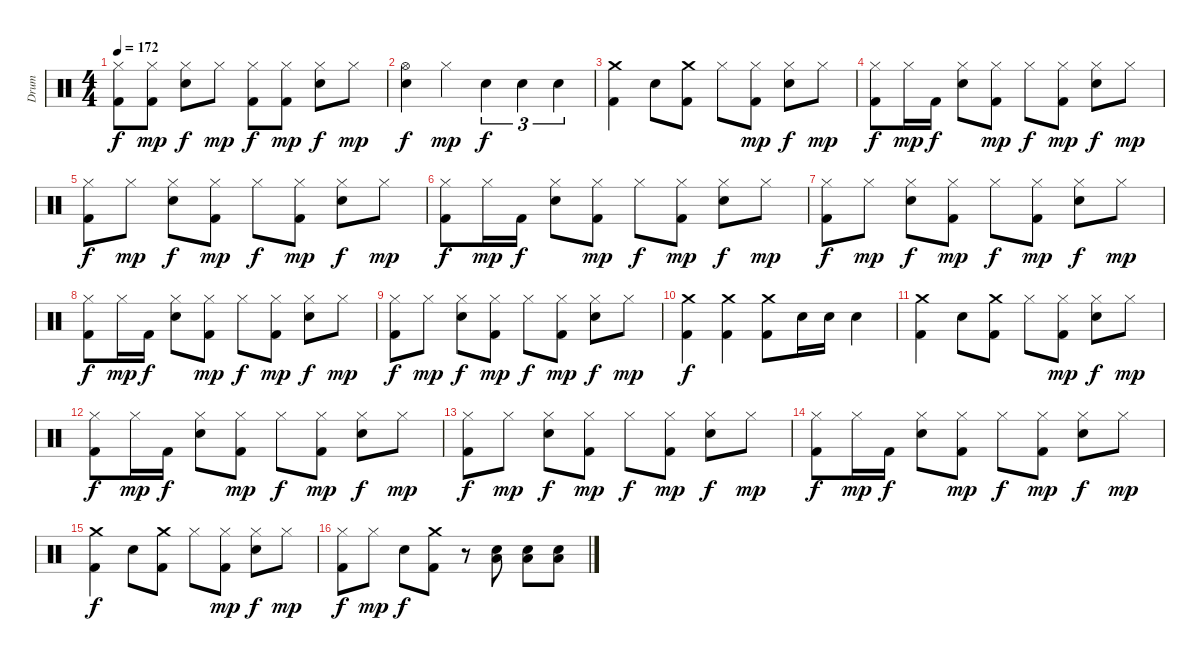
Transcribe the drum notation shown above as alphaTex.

\track ("Drum" "Drum") {instrument percussion}
\staff {score}
\articulation defaults
\ts (4 4)
\tempo 172
\clef neutral
\ks c
("Hi-Hat (closed)" "Kick (hit) 2").8{dy f} ("Hi-Hat (closed)" "Kick (hit) 2").8{dy mp} ("Hi-Hat (closed)" "Electric Snare (hit)").8{dy f} "Hi-Hat (closed)".8{dy mp} ("Hi-Hat (closed)" "Kick (hit) 2").8{dy f} ("Hi-Hat (closed)" "Kick (hit) 2").8{dy mp} ("Hi-Hat (closed)" "Electric Snare (hit)").8{dy f} "Hi-Hat (closed)".8{dy mp} |
("Hi-Hat (open)" "Electric Snare (hit)").4{dy f} "Hi-Hat (closed)".4{dy mp} "Electric Snare (hit)".4{tu (3 2) dy f} "Electric Snare (hit)".4{tu (3 2)} "Electric Snare (hit)".4{tu (3 2)} |
("Crash medium (hit)" "Kick (hit) 2").4 "Electric Snare (hit)".8 ("Crash medium (hit)" "Kick (hit) 2").8 "Hi-Hat (closed)".8 ("Hi-Hat (closed)" "Kick (hit) 2").8{dy mp} ("Hi-Hat (closed)" "Electric Snare (hit)").8{dy f} "Hi-Hat (closed)".8{dy mp} |
("Hi-Hat (closed)" "Kick (hit) 2").8{dy f} "Hi-Hat (closed)".16{dy mp} "Kick (hit) 2".16{dy f} ("Hi-Hat (closed)" "Electric Snare (hit)").8 ("Hi-Hat (closed)" "Kick (hit) 2").8{dy mp} "Hi-Hat (closed)".8{dy f} ("Hi-Hat (closed)" "Kick (hit) 2").8{dy mp} ("Hi-Hat (closed)" "Electric Snare (hit)").8{dy f} "Hi-Hat (closed)".8{dy mp} |
("Hi-Hat (closed)" "Kick (hit) 2").8{dy f} "Hi-Hat (closed)".8{dy mp} ("Hi-Hat (closed)" "Electric Snare (hit)").8{dy f} ("Hi-Hat (closed)" "Kick (hit) 2").8{dy mp} "Hi-Hat (closed)".8{dy f} ("Hi-Hat (closed)" "Kick (hit) 2").8{dy mp} ("Hi-Hat (closed)" "Electric Snare (hit)").8{dy f} "Hi-Hat (closed)".8{dy mp} |
("Hi-Hat (closed)" "Kick (hit) 2").8{dy f} "Hi-Hat (closed)".16{dy mp} "Kick (hit) 2".16{dy f} ("Hi-Hat (closed)" "Electric Snare (hit)").8 ("Hi-Hat (closed)" "Kick (hit) 2").8{dy mp} "Hi-Hat (closed)".8{dy f} ("Hi-Hat (closed)" "Kick (hit) 2").8{dy mp} ("Hi-Hat (closed)" "Electric Snare (hit)").8{dy f} "Hi-Hat (closed)".8{dy mp} |
("Hi-Hat (closed)" "Kick (hit) 2").8{dy f} "Hi-Hat (closed)".8{dy mp} ("Hi-Hat (closed)" "Electric Snare (hit)").8{dy f} ("Hi-Hat (closed)" "Kick (hit) 2").8{dy mp} "Hi-Hat (closed)".8{dy f} ("Hi-Hat (closed)" "Kick (hit) 2").8{dy mp} ("Hi-Hat (closed)" "Electric Snare (hit)").8{dy f} "Hi-Hat (closed)".8{dy mp} |
("Hi-Hat (closed)" "Kick (hit) 2").8{dy f} "Hi-Hat (closed)".16{dy mp} "Kick (hit) 2".16{dy f} ("Hi-Hat (closed)" "Electric Snare (hit)").8 ("Hi-Hat (closed)" "Kick (hit) 2").8{dy mp} "Hi-Hat (closed)".8{dy f} ("Hi-Hat (closed)" "Kick (hit) 2").8{dy mp} ("Hi-Hat (closed)" "Electric Snare (hit)").8{dy f} "Hi-Hat (closed)".8{dy mp} |
("Hi-Hat (closed)" "Kick (hit) 2").8{dy f} "Hi-Hat (closed)".8{dy mp} ("Hi-Hat (closed)" "Electric Snare (hit)").8{dy f} ("Hi-Hat (closed)" "Kick (hit) 2").8{dy mp} "Hi-Hat (closed)".8{dy f} ("Hi-Hat (closed)" "Kick (hit) 2").8{dy mp} ("Hi-Hat (closed)" "Electric Snare (hit)").8{dy f} "Hi-Hat (closed)".8{dy mp} |
("Crash medium (hit)" "Kick (hit) 2").4{dy f} ("Crash medium (hit)" "Kick (hit) 2").4 ("Crash medium (hit)" "Kick (hit) 2").8 "Electric Snare (hit)".16 "Electric Snare (hit)".16 "Electric Snare (hit)".4 |
("Crash medium (hit)" "Kick (hit) 2").4 "Electric Snare (hit)".8 ("Crash medium (hit)" "Kick (hit) 2").8 "Hi-Hat (closed)".8 ("Hi-Hat (closed)" "Kick (hit) 2").8{dy mp} ("Hi-Hat (closed)" "Electric Snare (hit)").8{dy f} "Hi-Hat (closed)".8{dy mp} |
("Hi-Hat (closed)" "Kick (hit) 2").8{dy f} "Hi-Hat (closed)".16{dy mp} "Kick (hit) 2".16{dy f} ("Hi-Hat (closed)" "Electric Snare (hit)").8 ("Hi-Hat (closed)" "Kick (hit) 2").8{dy mp} "Hi-Hat (closed)".8{dy f} ("Hi-Hat (closed)" "Kick (hit) 2").8{dy mp} ("Hi-Hat (closed)" "Electric Snare (hit)").8{dy f} "Hi-Hat (closed)".8{dy mp} |
("Hi-Hat (closed)" "Kick (hit) 2").8{dy f} "Hi-Hat (closed)".8{dy mp} ("Hi-Hat (closed)" "Electric Snare (hit)").8{dy f} ("Hi-Hat (closed)" "Kick (hit) 2").8{dy mp} "Hi-Hat (closed)".8{dy f} ("Hi-Hat (closed)" "Kick (hit) 2").8{dy mp} ("Hi-Hat (closed)" "Electric Snare (hit)").8{dy f} "Hi-Hat (closed)".8{dy mp} |
("Hi-Hat (closed)" "Kick (hit) 2").8{dy f} "Hi-Hat (closed)".16{dy mp} "Kick (hit) 2".16{dy f} ("Hi-Hat (closed)" "Electric Snare (hit)").8 ("Hi-Hat (closed)" "Kick (hit) 2").8{dy mp} "Hi-Hat (closed)".8{dy f} ("Hi-Hat (closed)" "Kick (hit) 2").8{dy mp} ("Hi-Hat (closed)" "Electric Snare (hit)").8{dy f} "Hi-Hat (closed)".8{dy mp} |
("Crash medium (hit)" "Kick (hit) 2").4{dy f} "Electric Snare (hit)".8 ("Crash medium (hit)" "Kick (hit) 2").8 "Hi-Hat (closed)".8 ("Hi-Hat (closed)" "Kick (hit) 2").8{dy mp} ("Hi-Hat (closed)" "Electric Snare (hit)").8{dy f} "Hi-Hat (closed)".8{dy mp} |
("Hi-Hat (closed)" "Kick (hit) 2").8{dy f} "Hi-Hat (closed)".8{dy mp} "Electric Snare (hit)".8{dy f} ("Crash medium (hit)" "Kick (hit) 2").8 r.8 ("Electric Snare (hit)" "Low Tom (hit)").8 ("Electric Snare (hit)" "Low Tom (hit)").8 ("Electric Snare (hit)" "Low Tom (hit)").8
